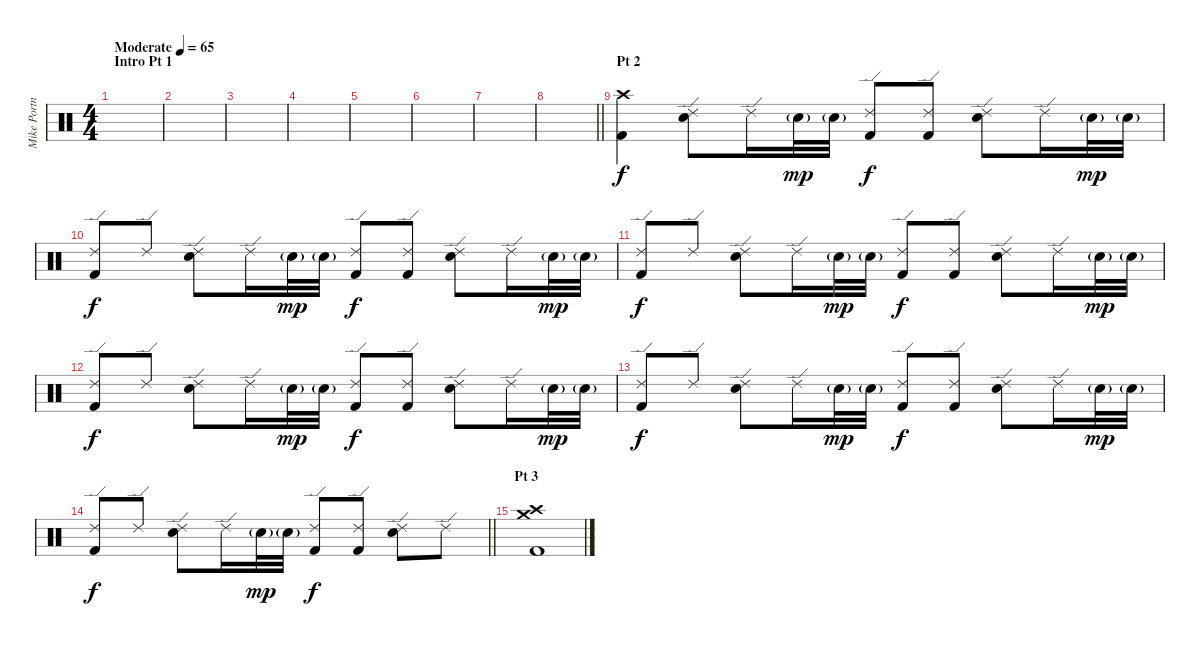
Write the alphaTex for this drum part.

\track ("Mike Portnoy [Drums]" "Mike Portn") {instrument percussion}
\staff {score}
\articulation defaults
\ts (4 4)
\section ("" "Intro Pt 1")
\tempo (65 "Moderate")
\clef neutral
\ks c
|
|
|
|
|
|
|
\barLineRight lightlight
|
\section ("" "Pt 2")
("Crash high (hit)" "Kick (hit) 2").4 ("Ride (edge) 2" "Snare (hit) 2").8 "Ride (edge) 2".16 "Snare (hit) 2"{g}.32{dy mp} "Snare (hit) 2"{g}.32 ("Ride (edge) 2" "Kick (hit) 2").8{dy f} ("Ride (edge) 2" "Kick (hit) 2").8 ("Ride (edge) 2" "Snare (hit) 2").8 "Ride (edge) 2".16 "Snare (hit) 2"{g}.32{dy mp} "Snare (hit) 2"{g}.32 |
("Ride (edge) 2" "Kick (hit) 2").8{dy f} "Ride (edge) 2".8 ("Ride (edge) 2" "Snare (hit) 2").8 "Ride (edge) 2".16 "Snare (hit) 2"{g}.32{dy mp} "Snare (hit) 2"{g}.32 ("Ride (edge) 2" "Kick (hit) 2").8{dy f} ("Ride (edge) 2" "Kick (hit) 2").8 ("Ride (edge) 2" "Snare (hit) 2").8 "Ride (edge) 2".16 "Snare (hit) 2"{g}.32{dy mp} "Snare (hit) 2"{g}.32 |
("Ride (edge) 2" "Kick (hit) 2").8{dy f} "Ride (edge) 2".8 ("Ride (edge) 2" "Snare (hit) 2").8 "Ride (edge) 2".16 "Snare (hit) 2"{g}.32{dy mp} "Snare (hit) 2"{g}.32 ("Ride (edge) 2" "Kick (hit) 2").8{dy f} ("Ride (edge) 2" "Kick (hit) 2").8 ("Ride (edge) 2" "Snare (hit) 2").8 "Ride (edge) 2".16 "Snare (hit) 2"{g}.32{dy mp} "Snare (hit) 2"{g}.32 |
("Ride (edge) 2" "Kick (hit) 2").8{dy f} "Ride (edge) 2".8 ("Ride (edge) 2" "Snare (hit) 2").8 "Ride (edge) 2".16 "Snare (hit) 2"{g}.32{dy mp} "Snare (hit) 2"{g}.32 ("Ride (edge) 2" "Kick (hit) 2").8{dy f} ("Ride (edge) 2" "Kick (hit) 2").8 ("Ride (edge) 2" "Snare (hit) 2").8 "Ride (edge) 2".16 "Snare (hit) 2"{g}.32{dy mp} "Snare (hit) 2"{g}.32 |
("Ride (edge) 2" "Kick (hit) 2").8{dy f} "Ride (edge) 2".8 ("Ride (edge) 2" "Snare (hit) 2").8 "Ride (edge) 2".16 "Snare (hit) 2"{g}.32{dy mp} "Snare (hit) 2"{g}.32 ("Ride (edge) 2" "Kick (hit) 2").8{dy f} ("Ride (edge) 2" "Kick (hit) 2").8 ("Ride (edge) 2" "Snare (hit) 2").8 "Ride (edge) 2".16 "Snare (hit) 2"{g}.32{dy mp} "Snare (hit) 2"{g}.32 |
\barLineRight lightlight
("Ride (edge) 2" "Kick (hit) 2").8{dy f} "Ride (edge) 2".8 ("Ride (edge) 2" "Snare (hit) 2").8 "Ride (edge) 2".16 "Snare (hit) 2"{g}.32{dy mp} "Snare (hit) 2"{g}.32 ("Ride (edge) 2" "Kick (hit) 2").8{dy f} ("Ride (edge) 2" "Kick (hit) 2").8 ("Ride (edge) 2" "Snare (hit) 2").8 "Ride (edge) 2".8 |
\section ("" "Pt 3")
("Crash high (hit)" "Crash medium (hit)" "Kick (hit) 2").1
